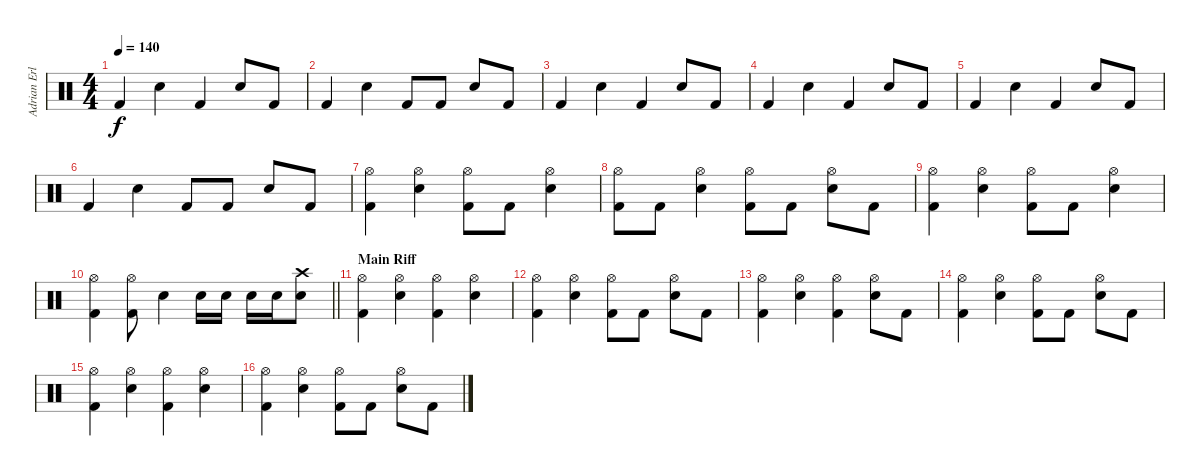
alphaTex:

\track ("Adrian Erlandsson" "Adrian Erl") {instrument percussion}
\staff {score}
\articulation defaults
\ts (4 4)
\tempo 140
\clef neutral
\ks c "Kick (hit) 2".4{dy f} "Snare (hit) 2".4 "Kick (hit) 2".4 "Snare (hit) 2".8 "Kick (hit) 2".8
|
"Kick (hit) 2".4 "Snare (hit) 2".4 "Kick (hit) 2".8 "Kick (hit) 2".8 "Snare (hit) 2".8 "Kick (hit) 2".8 |
"Kick (hit) 2".4 "Snare (hit) 2".4 "Kick (hit) 2".4 "Snare (hit) 2".8 "Kick (hit) 2".8 |
"Kick (hit) 2".4 "Snare (hit) 2".4 "Kick (hit) 2".4 "Snare (hit) 2".8 "Kick (hit) 2".8 |
"Kick (hit) 2".4 "Snare (hit) 2".4 "Kick (hit) 2".4 "Snare (hit) 2".8 "Kick (hit) 2".8 |
"Kick (hit) 2".4 "Snare (hit) 2".4 "Kick (hit) 2".8 "Kick (hit) 2".8 "Snare (hit) 2".8 "Kick (hit) 2".8 |
("Hi-Hat (open)" "Kick (hit) 2").4 ("Hi-Hat (open)" "Snare (hit) 2").4 ("Hi-Hat (open)" "Kick (hit) 2").8 "Kick (hit) 2".8 ("Hi-Hat (open)" "Snare (hit) 2").4 |
("Hi-Hat (open)" "Kick (hit) 2").8 "Kick (hit) 2".8 ("Hi-Hat (open)" "Snare (hit) 2").4 ("Hi-Hat (open)" "Kick (hit) 2").8 "Kick (hit) 2".8 ("Hi-Hat (open)" "Snare (hit) 2").8 "Kick (hit) 2".8 |
("Hi-Hat (open)" "Kick (hit) 2").4 ("Hi-Hat (open)" "Snare (hit) 2").4 ("Hi-Hat (open)" "Kick (hit) 2").8 "Kick (hit) 2".8 ("Hi-Hat (open)" "Snare (hit) 2").4 |
\barLineRight lightlight
("Hi-Hat (open)" "Kick (hit) 2").4 ("Hi-Hat (open)" "Kick (hit) 2").8 "Snare (hit) 2".4 "Snare (hit) 2".16 "Snare (hit) 2".16 "Snare (hit) 2".16 "Snare (hit) 2".16 ("Crash high (hit)" "Snare (hit) 2").8 |
\section ("" "Main Riff")
("Hi-Hat (open)" "Kick (hit) 2").4 ("Hi-Hat (open)" "Snare (hit) 2").4 ("Hi-Hat (open)" "Kick (hit) 2").4 ("Hi-Hat (open)" "Snare (hit) 2").4 |
("Hi-Hat (open)" "Kick (hit) 2").4 ("Hi-Hat (open)" "Snare (hit) 2").4 ("Hi-Hat (open)" "Kick (hit) 2").8 "Kick (hit) 2".8 ("Hi-Hat (open)" "Snare (hit) 2").8 "Kick (hit) 2".8 |
("Hi-Hat (open)" "Kick (hit) 2").4 ("Hi-Hat (open)" "Snare (hit) 2").4 ("Hi-Hat (open)" "Kick (hit) 2").4 ("Hi-Hat (open)" "Snare (hit) 2").8 "Kick (hit) 2".8 |
("Hi-Hat (open)" "Kick (hit) 2").4 ("Hi-Hat (open)" "Snare (hit) 2").4 ("Hi-Hat (open)" "Kick (hit) 2").8 "Kick (hit) 2".8 ("Hi-Hat (open)" "Snare (hit) 2").8 "Kick (hit) 2".8 |
("Hi-Hat (open)" "Kick (hit) 2").4 ("Hi-Hat (open)" "Snare (hit) 2").4 ("Hi-Hat (open)" "Kick (hit) 2").4 ("Hi-Hat (open)" "Snare (hit) 2").4 |
("Hi-Hat (open)" "Kick (hit) 2").4 ("Hi-Hat (open)" "Snare (hit) 2").4 ("Hi-Hat (open)" "Kick (hit) 2").8 "Kick (hit) 2".8 ("Hi-Hat (open)" "Snare (hit) 2").8 "Kick (hit) 2".8
